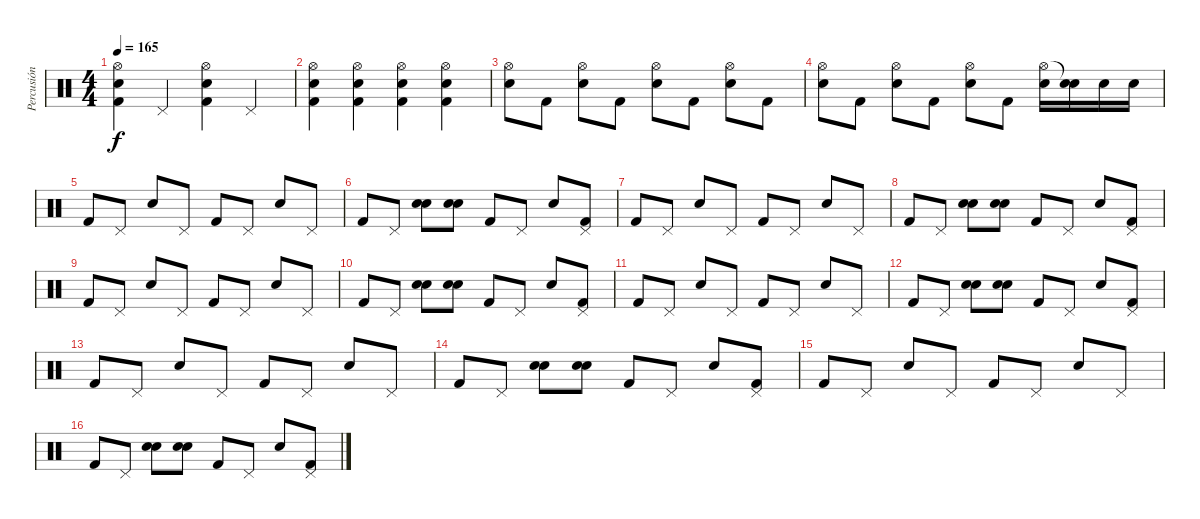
\track ("Percusión" "Percusión") {instrument percussion}
\staff {score}
\articulation defaults
\ts (4 4)
\tempo 165
\clef neutral
\ks c
("Hi-Hat (open)" "Snare (hit) 2" "Kick (hit) 2").4{dy f} "Pedal Hi-Hat (hit)".4 ("Hi-Hat (open)" "Snare (hit) 2" "Kick (hit) 2").4 "Pedal Hi-Hat (hit)".4 |
("Hi-Hat (open)" "Snare (hit) 2" "Kick (hit) 2").4 ("Hi-Hat (open)" "Snare (hit) 2" "Kick (hit) 2").4 ("Hi-Hat (open)" "Snare (hit) 2" "Kick (hit) 2").4 ("Hi-Hat (open)" "Snare (hit) 2" "Kick (hit) 2").4 |
("Hi-Hat (open)" "Snare (hit) 2").8 "Kick (hit) 2".8 ("Hi-Hat (open)" "Snare (hit) 2").8 "Kick (hit) 2".8 ("Hi-Hat (open)" "Snare (hit) 2").8 "Kick (hit) 2".8 ("Hi-Hat (open)" "Snare (hit) 2").8 "Kick (hit) 2".8 |
("Hi-Hat (open)" "Snare (hit) 2").8 "Kick (hit) 2".8 ("Hi-Hat (open)" "Snare (hit) 2").8 "Kick (hit) 2".8 ("Hi-Hat (open)" "Snare (hit) 2").8 "Kick (hit) 2".8 ("Hi-Hat (open)" "Snare (hit) 2").16 ("Snare (hit)"{t} "Snare (hit) 2").16 "Snare (hit) 2".16 "Snare (hit) 2".16 |
"Kick (hit) 2".8 "Pedal Hi-Hat (hit)".8 "Snare (hit) 2".8 "Pedal Hi-Hat (hit)".8 "Kick (hit) 2".8 "Pedal Hi-Hat (hit)".8 "Snare (hit) 2".8 "Pedal Hi-Hat (hit)".8 |
"Kick (hit) 2".8 "Pedal Hi-Hat (hit)".8 ("Snare (hit) 2" "Snare (hit) 2").8 ("Snare (hit) 2" "Snare (hit) 2").8 "Kick (hit) 2".8 "Pedal Hi-Hat (hit)".8 "Snare (hit) 2".8 ("Kick (hit) 2" "Pedal Hi-Hat (hit)").8 |
"Kick (hit) 2".8 "Pedal Hi-Hat (hit)".8 "Snare (hit) 2".8 "Pedal Hi-Hat (hit)".8 "Kick (hit) 2".8 "Pedal Hi-Hat (hit)".8 "Snare (hit) 2".8 "Pedal Hi-Hat (hit)".8 |
"Kick (hit) 2".8 "Pedal Hi-Hat (hit)".8 ("Snare (hit) 2" "Snare (hit) 2").8 ("Snare (hit) 2" "Snare (hit) 2").8 "Kick (hit) 2".8 "Pedal Hi-Hat (hit)".8 "Snare (hit) 2".8 ("Kick (hit) 2" "Pedal Hi-Hat (hit)").8 |
"Kick (hit) 2".8 "Pedal Hi-Hat (hit)".8 "Snare (hit) 2".8 "Pedal Hi-Hat (hit)".8 "Kick (hit) 2".8 "Pedal Hi-Hat (hit)".8 "Snare (hit) 2".8 "Pedal Hi-Hat (hit)".8 |
"Kick (hit) 2".8 "Pedal Hi-Hat (hit)".8 ("Snare (hit) 2" "Snare (hit) 2").8 ("Snare (hit) 2" "Snare (hit) 2").8 "Kick (hit) 2".8 "Pedal Hi-Hat (hit)".8 "Snare (hit) 2".8 ("Kick (hit) 2" "Pedal Hi-Hat (hit)").8 |
"Kick (hit) 2".8 "Pedal Hi-Hat (hit)".8 "Snare (hit) 2".8 "Pedal Hi-Hat (hit)".8 "Kick (hit) 2".8 "Pedal Hi-Hat (hit)".8 "Snare (hit) 2".8 "Pedal Hi-Hat (hit)".8 |
"Kick (hit) 2".8 "Pedal Hi-Hat (hit)".8 ("Snare (hit) 2" "Snare (hit) 2").8 ("Snare (hit) 2" "Snare (hit) 2").8 "Kick (hit) 2".8 "Pedal Hi-Hat (hit)".8 "Snare (hit) 2".8 ("Kick (hit) 2" "Pedal Hi-Hat (hit)").8 |
"Kick (hit) 2".8 "Pedal Hi-Hat (hit)".8 "Snare (hit) 2".8 "Pedal Hi-Hat (hit)".8 "Kick (hit) 2".8 "Pedal Hi-Hat (hit)".8 "Snare (hit) 2".8 "Pedal Hi-Hat (hit)".8 |
"Kick (hit) 2".8 "Pedal Hi-Hat (hit)".8 ("Snare (hit) 2" "Snare (hit) 2").8 ("Snare (hit) 2" "Snare (hit) 2").8 "Kick (hit) 2".8 "Pedal Hi-Hat (hit)".8 "Snare (hit) 2".8 ("Kick (hit) 2" "Pedal Hi-Hat (hit)").8 |
"Kick (hit) 2".8 "Pedal Hi-Hat (hit)".8 "Snare (hit) 2".8 "Pedal Hi-Hat (hit)".8 "Kick (hit) 2".8 "Pedal Hi-Hat (hit)".8 "Snare (hit) 2".8 "Pedal Hi-Hat (hit)".8 |
"Kick (hit) 2".8 "Pedal Hi-Hat (hit)".8 ("Snare (hit) 2" "Snare (hit) 2").8 ("Snare (hit) 2" "Snare (hit) 2").8 "Kick (hit) 2".8 "Pedal Hi-Hat (hit)".8 "Snare (hit) 2".8 ("Kick (hit) 2" "Pedal Hi-Hat (hit)").8
